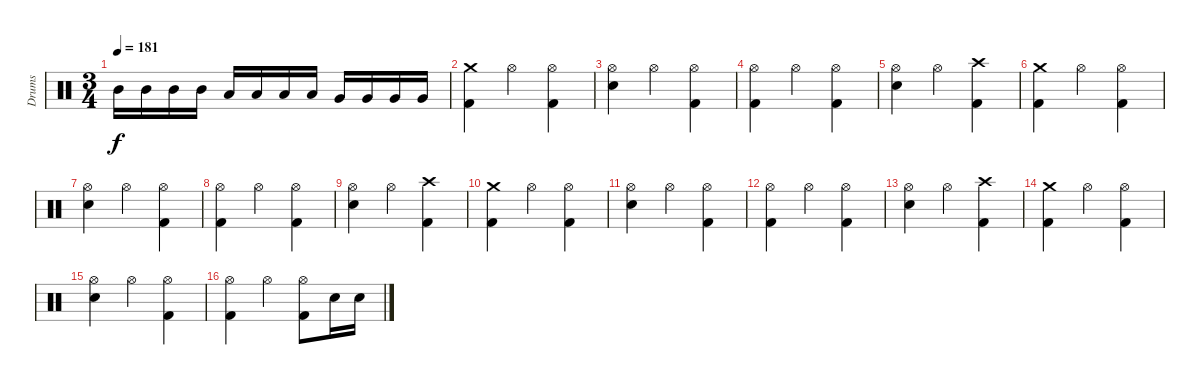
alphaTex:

\track ("Drums" "Drums") {instrument percussion}
\staff {score}
\articulation defaults
\ts (3 4)
\tempo 181
\clef neutral
\ks c "Mid Tom (hit)".16{dy f} "Mid Tom (hit)".16 "Mid Tom (hit)".16 "Mid Tom (hit)".16 "Low Tom (hit)".16 "Low Tom (hit)".16 "Low Tom (hit)".16 "Low Tom (hit)".16 "Very Low Tom (hit)".16 "Very Low Tom (hit)".16 "Very Low Tom (hit)".16 "Very Low Tom (hit)".16
|
("Crash medium (hit)" "Kick (hit) 2").4 "Hi-Hat (open)".4 ("Hi-Hat (open)" "Kick (hit) 2").4 |
("Hi-Hat (open)" "Electric Snare (hit)").4 "Hi-Hat (open)".4 ("Hi-Hat (open)" "Kick (hit) 2").4 |
("Hi-Hat (open)" "Kick (hit) 2").4 "Hi-Hat (open)".4 ("Hi-Hat (open)" "Kick (hit) 2").4 |
("Hi-Hat (open)" "Electric Snare (hit)").4 "Hi-Hat (open)".4 ("Crash high (hit)" "Kick (hit) 2").4 |
("Crash medium (hit)" "Kick (hit) 2").4 "Hi-Hat (open)".4 ("Hi-Hat (open)" "Kick (hit) 2").4 |
("Hi-Hat (open)" "Electric Snare (hit)").4 "Hi-Hat (open)".4 ("Hi-Hat (open)" "Kick (hit) 2").4 |
("Hi-Hat (open)" "Kick (hit) 2").4 "Hi-Hat (open)".4 ("Hi-Hat (open)" "Kick (hit) 2").4 |
("Hi-Hat (open)" "Electric Snare (hit)").4 "Hi-Hat (open)".4 ("Crash high (hit)" "Kick (hit) 2").4 |
("Crash medium (hit)" "Kick (hit) 2").4 "Hi-Hat (open)".4 ("Hi-Hat (open)" "Kick (hit) 2").4 |
("Hi-Hat (open)" "Electric Snare (hit)").4 "Hi-Hat (open)".4 ("Hi-Hat (open)" "Kick (hit) 2").4 |
("Hi-Hat (open)" "Kick (hit) 2").4 "Hi-Hat (open)".4 ("Hi-Hat (open)" "Kick (hit) 2").4 |
("Hi-Hat (open)" "Electric Snare (hit)").4 "Hi-Hat (open)".4 ("Crash high (hit)" "Kick (hit) 2").4 |
("Crash medium (hit)" "Kick (hit) 2").4 "Hi-Hat (open)".4 ("Hi-Hat (open)" "Kick (hit) 2").4 |
("Hi-Hat (open)" "Electric Snare (hit)").4 "Hi-Hat (open)".4 ("Hi-Hat (open)" "Kick (hit) 2").4 |
("Hi-Hat (open)" "Kick (hit) 2").4 "Hi-Hat (open)".4 ("Hi-Hat (open)" "Kick (hit) 2").8 "Electric Snare (hit)".16 "Electric Snare (hit)".16
